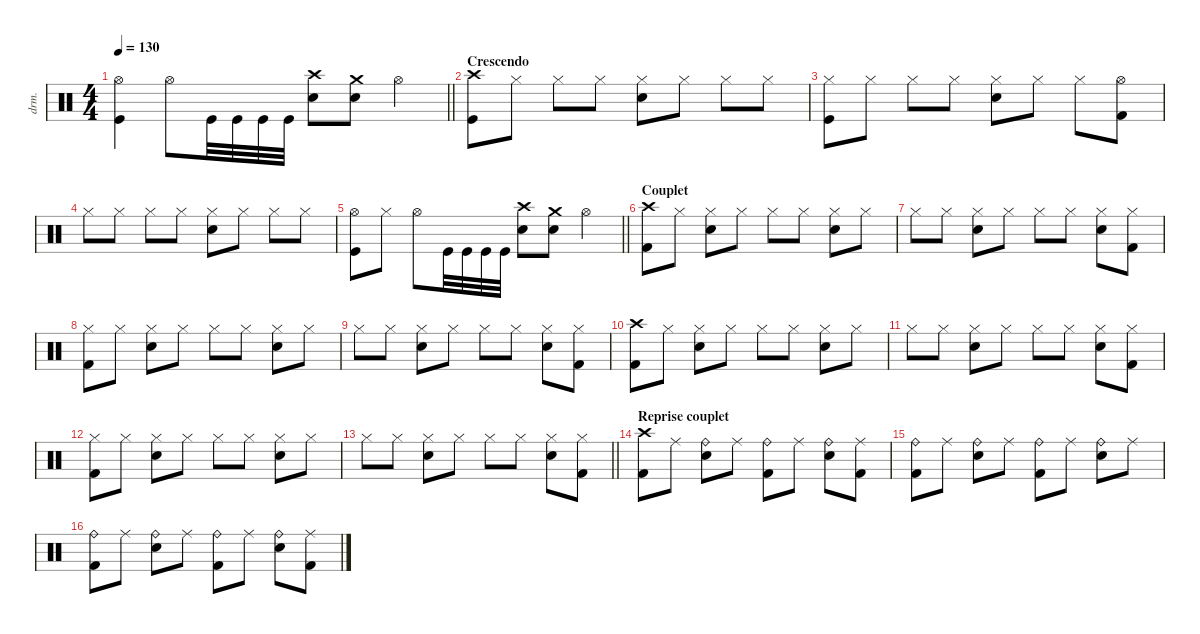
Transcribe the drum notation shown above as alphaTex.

\defaultSystemsLayout 4
\hideDynamics
\bracketExtendMode nobrackets
\track ("Manouche" "drm.") {instrument percussion}
\staff {score}
\articulation defaults
\ts (4 4)
\tempo 130
\clef neutral
\barLineRight lightlight
\ks c
("Hi-Hat (open)" "Kick (hit)").4{dy f} "Hi-Hat (open)".8 "Kick (hit)".32 "Kick (hit)".32 "Kick (hit)".32 "Kick (hit)".32 ("Snare (hit) 2" "Crash high (hit)").8 ("Crash medium (hit)" "Snare (hit) 2").8 "Hi-Hat (open)".4 |
\section ("" "Crescendo")
("Crash high (hit)" "Kick (hit)").8{dy mp} "Hi-Hat (closed)".8 "Hi-Hat (closed)".8 "Hi-Hat (closed)".8 ("Hi-Hat (closed)" "Snare (hit) 2").8 "Hi-Hat (closed)".8 "Hi-Hat (closed)".8 "Hi-Hat (closed)".8 |
("Hi-Hat (closed)" "Kick (hit)").8 "Hi-Hat (closed)".8 "Hi-Hat (closed)".8 "Hi-Hat (closed)".8 ("Hi-Hat (closed)" "Snare (hit) 2").8 "Hi-Hat (closed)".8 "Hi-Hat (closed)".8 ("Hi-Hat (open)" "Kick (hit) 2").8 |
"Hi-Hat (closed)".8{dy mf} "Hi-Hat (closed)".8{dy mp} "Hi-Hat (closed)".8 "Hi-Hat (closed)".8 ("Hi-Hat (closed)" "Snare (hit) 2").8 "Hi-Hat (closed)".8 "Hi-Hat (closed)".8 "Hi-Hat (closed)".8 |
\barLineRight lightlight
("Kick (hit)" "Hi-Hat (open)").8{dy f} "Hi-Hat (closed)".8 "Hi-Hat (open)".8 "Kick (hit)".32 "Kick (hit)".32 "Kick (hit)".32 "Kick (hit)".32 ("Snare (hit) 2" "Crash high (hit)").8 ("Crash medium (hit)" "Snare (hit) 2").8 "Hi-Hat (open)".4 |
\section ("" "Couplet")
("Crash high (hit)" "Kick (hit) 2").8 "Hi-Hat (closed)".8{dy mp} ("Hi-Hat (closed)" "Snare (hit) 2").8{dy f} "Hi-Hat (closed)".8{dy mp} "Hi-Hat (closed)".8{dy f} "Hi-Hat (closed)".8{dy mp} ("Hi-Hat (closed)" "Snare (hit) 2").8{dy f} "Hi-Hat (closed)".8{dy mp} |
"Hi-Hat (closed)".8{dy f} "Hi-Hat (closed)".8{dy mp} ("Hi-Hat (closed)" "Snare (hit) 2").8{dy f} "Hi-Hat (closed)".8{dy mp} "Hi-Hat (closed)".8{dy f} "Hi-Hat (closed)".8{dy mp} ("Hi-Hat (closed)" "Snare (hit) 2").8{dy f} ("Hi-Hat (closed)" "Kick (hit) 2").8{dy mp} |
("Hi-Hat (closed)" "Kick (hit) 2").8 "Hi-Hat (closed)".8 ("Hi-Hat (closed)" "Snare (hit) 2").8{dy f} "Hi-Hat (closed)".8{dy mp} "Hi-Hat (closed)".8{dy f} "Hi-Hat (closed)".8{dy mp} ("Hi-Hat (closed)" "Snare (hit) 2").8{dy f} "Hi-Hat (closed)".8{dy mp} |
"Hi-Hat (closed)".8{dy f} "Hi-Hat (closed)".8{dy mp} ("Hi-Hat (closed)" "Snare (hit) 2").8{dy f} "Hi-Hat (closed)".8{dy mp} "Hi-Hat (closed)".8{dy f} "Hi-Hat (closed)".8{dy mp} ("Hi-Hat (closed)" "Snare (hit) 2").8{dy f} ("Hi-Hat (closed)" "Kick (hit) 2").8{dy mp} |
("Crash high (hit)" "Kick (hit) 2").8{dy f} "Hi-Hat (closed)".8{dy mp} ("Hi-Hat (closed)" "Snare (hit) 2").8{dy f} "Hi-Hat (closed)".8{dy mp} "Hi-Hat (closed)".8{dy f} "Hi-Hat (closed)".8{dy mp} ("Hi-Hat (closed)" "Snare (hit) 2").8{dy f} "Hi-Hat (closed)".8{dy mp} |
"Hi-Hat (closed)".8{dy f} "Hi-Hat (closed)".8{dy mp} ("Hi-Hat (closed)" "Snare (hit) 2").8{dy f} "Hi-Hat (closed)".8{dy mp} "Hi-Hat (closed)".8{dy f} "Hi-Hat (closed)".8{dy mp} ("Hi-Hat (closed)" "Snare (hit) 2").8{dy f} ("Hi-Hat (closed)" "Kick (hit) 2").8{dy mp} |
("Hi-Hat (closed)" "Kick (hit) 2").8 "Hi-Hat (closed)".8 ("Hi-Hat (closed)" "Snare (hit) 2").8{dy f} "Hi-Hat (closed)".8{dy mp} "Hi-Hat (closed)".8{dy f} "Hi-Hat (closed)".8{dy mp} ("Hi-Hat (closed)" "Snare (hit) 2").8{dy f} "Hi-Hat (closed)".8{dy mp} |
\barLineRight lightlight "Hi-Hat (closed)".8{dy f} "Hi-Hat (closed)".8{dy mp}
("Hi-Hat (closed)" "Snare (hit) 2").8{dy f} "Hi-Hat (closed)".8{dy mp} "Hi-Hat (closed)".8{dy f} "Hi-Hat (closed)".8{dy mp} ("Hi-Hat (closed)" "Snare (hit) 2").8{dy f} ("Hi-Hat (closed)" "Kick (hit) 2").8{dy mp} |
\section ("" "Reprise couplet")
("Crash high (hit)" "Kick (hit) 2").8{dy f} "Ride (middle)".8{dy mf} ("Ride (bell)" "Snare (hit) 2").8{dy f} "Ride (middle)".8{dy mf} ("Ride (bell)" "Kick (hit) 2").8{dy f} "Ride (middle)".8{dy mf} ("Ride (bell)" "Snare (hit) 2").8{dy f} ("Ride (middle)" "Kick (hit) 2").8{dy mf} |
("Ride (bell)" "Kick (hit) 2").8{dy f} "Ride (middle)".8{dy mf} ("Ride (bell)" "Snare (hit) 2").8{dy f} "Ride (middle)".8{dy mf} ("Ride (bell)" "Kick (hit) 2").8{dy f} "Ride (middle)".8{dy mf} ("Ride (bell)" "Snare (hit) 2").8{dy f} "Ride (middle)".8{dy mf} |
("Ride (bell)" "Kick (hit) 2").8{dy f} "Ride (middle)".8{dy mf} ("Ride (bell)" "Snare (hit) 2").8{dy f} "Ride (middle)".8{dy mf} ("Ride (bell)" "Kick (hit) 2").8{dy f} "Ride (middle)".8{dy mf} ("Ride (bell)" "Snare (hit) 2").8{dy f} ("Ride (middle)" "Kick (hit) 2").8{dy mf}
